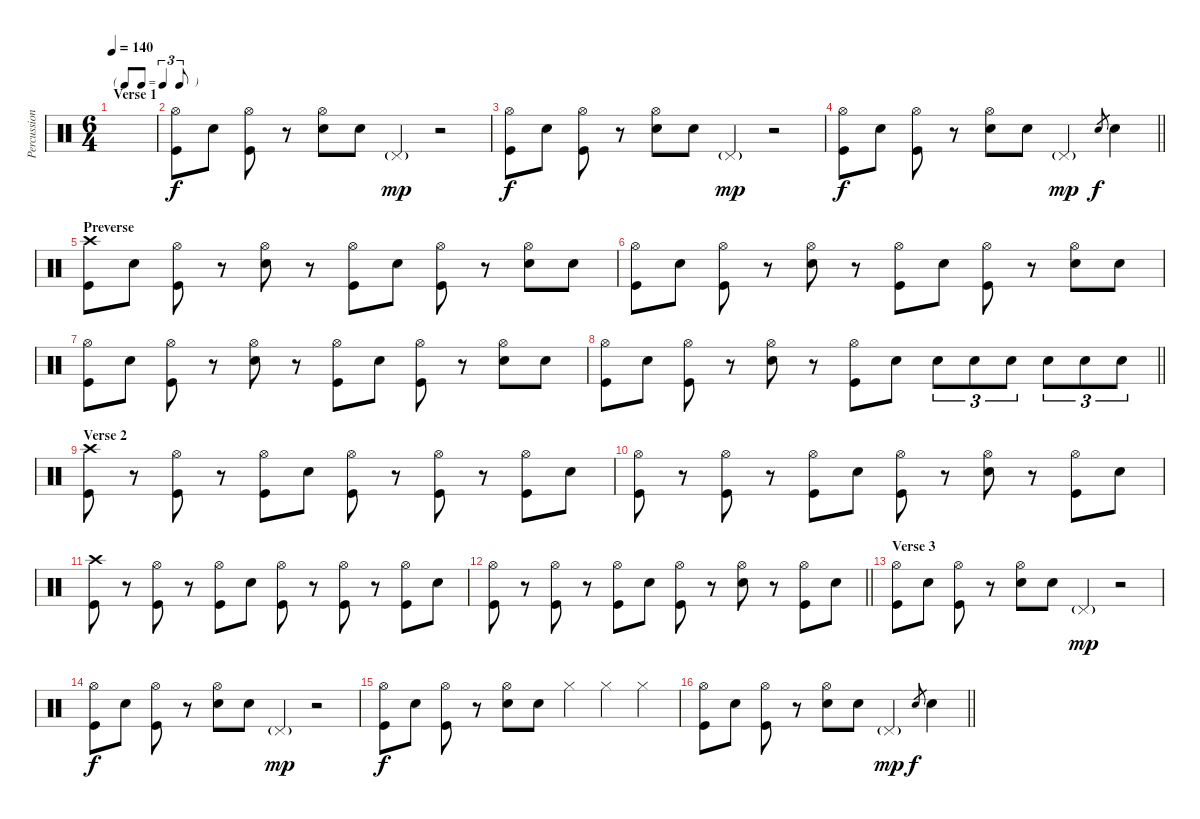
\track ("Percussion" "Percussion") {instrument percussion}
\staff {score}
\articulation defaults
\ts (6 4)
\tf triplet8th
\section ("" "Verse 1")
\tempo 140
\clef neutral
\ks c
|
("Hi-Hat (open)" "Kick (hit)").8 "Electric Snare (hit)".8 ("Hi-Hat (open)" "Kick (hit)").8 r.8 ("Hi-Hat (open)" "Electric Snare (hit)").8 "Electric Snare (hit)".8 "Pedal Hi-Hat (hit)"{g}.4{dy mp} r.2 |
("Hi-Hat (open)" "Kick (hit)").8{dy f} "Electric Snare (hit)".8 ("Hi-Hat (open)" "Kick (hit)").8 r.8 ("Hi-Hat (open)" "Electric Snare (hit)").8 "Electric Snare (hit)".8 "Pedal Hi-Hat (hit)"{g}.4{dy mp} r.2 |
\barLineRight lightlight
("Hi-Hat (open)" "Kick (hit)").8{dy f} "Electric Snare (hit)".8 ("Hi-Hat (open)" "Kick (hit)").8 r.8 ("Hi-Hat (open)" "Electric Snare (hit)").8 "Electric Snare (hit)".8 "Pedal Hi-Hat (hit)"{g}.2{dy mp} "Electric Snare (hit)".8{gr dy f} "Electric Snare (hit)".4 |
\section ("" "Preverse")
("Crash high (hit)" "Kick (hit)").8 "Electric Snare (hit)".8 ("Hi-Hat (open)" "Kick (hit)").8 r.8 ("Hi-Hat (open)" "Electric Snare (hit)").8 r.8 ("Hi-Hat (open)" "Kick (hit)").8 "Electric Snare (hit)".8 ("Hi-Hat (open)" "Kick (hit)").8 r.8 ("Hi-Hat (open)" "Electric Snare (hit)").8 "Electric Snare (hit)".8 |
("Hi-Hat (open)" "Kick (hit)").8 "Electric Snare (hit)".8 ("Hi-Hat (open)" "Kick (hit)").8 r.8 ("Hi-Hat (open)" "Electric Snare (hit)").8 r.8 ("Hi-Hat (open)" "Kick (hit)").8 "Electric Snare (hit)".8 ("Hi-Hat (open)" "Kick (hit)").8 r.8 ("Hi-Hat (open)" "Electric Snare (hit)").8 "Electric Snare (hit)".8 |
("Hi-Hat (open)" "Kick (hit)").8 "Electric Snare (hit)".8 ("Hi-Hat (open)" "Kick (hit)").8 r.8 ("Hi-Hat (open)" "Electric Snare (hit)").8 r.8 ("Hi-Hat (open)" "Kick (hit)").8 "Electric Snare (hit)".8 ("Hi-Hat (open)" "Kick (hit)").8 r.8 ("Hi-Hat (open)" "Electric Snare (hit)").8 "Electric Snare (hit)".8 |
\barLineRight lightlight
("Hi-Hat (open)" "Kick (hit)").8 "Electric Snare (hit)".8 ("Hi-Hat (open)" "Kick (hit)").8 r.8 ("Hi-Hat (open)" "Electric Snare (hit)").8 r.8 ("Hi-Hat (open)" "Kick (hit)").8 "Electric Snare (hit)".8 "Electric Snare (hit)".8{tu (3 2)} "Electric Snare (hit)".8{tu (3 2)} "Electric Snare (hit)".8{tu (3 2)} "Electric Snare (hit)".8{tu (3 2)} "Electric Snare (hit)".8{tu (3 2)} "Electric Snare (hit)".8{tu (3 2)} |
\section ("" "Verse 2")
("Crash high (hit)" "Kick (hit)").8 r.8 ("Hi-Hat (open)" "Kick (hit)").8 r.8 ("Hi-Hat (open)" "Kick (hit)").8 "Electric Snare (hit)".8 ("Hi-Hat (open)" "Kick (hit)").8 r.8 ("Hi-Hat (open)" "Kick (hit)").8 r.8 ("Hi-Hat (open)" "Kick (hit)").8 "Electric Snare (hit)".8 |
("Hi-Hat (open)" "Kick (hit)").8 r.8 ("Hi-Hat (open)" "Kick (hit)").8 r.8 ("Hi-Hat (open)" "Kick (hit)").8 "Electric Snare (hit)".8 ("Hi-Hat (open)" "Kick (hit)").8 r.8 ("Hi-Hat (open)" "Electric Snare (hit)").8 r.8 ("Hi-Hat (open)" "Kick (hit)").8 "Electric Snare (hit)".8 |
("Crash high (hit)" "Kick (hit)").8 r.8 ("Hi-Hat (open)" "Kick (hit)").8 r.8 ("Hi-Hat (open)" "Kick (hit)").8 "Electric Snare (hit)".8 ("Hi-Hat (open)" "Kick (hit)").8 r.8 ("Hi-Hat (open)" "Kick (hit)").8 r.8 ("Hi-Hat (open)" "Kick (hit)").8 "Electric Snare (hit)".8 |
\barLineRight lightlight
("Hi-Hat (open)" "Kick (hit)").8 r.8 ("Hi-Hat (open)" "Kick (hit)").8 r.8 ("Hi-Hat (open)" "Kick (hit)").8 "Electric Snare (hit)".8 ("Hi-Hat (open)" "Kick (hit)").8 r.8 ("Hi-Hat (open)" "Electric Snare (hit)").8 r.8 ("Hi-Hat (open)" "Kick (hit)").8 "Electric Snare (hit)".8 |
\section ("" "Verse 3")
("Hi-Hat (open)" "Kick (hit)").8 "Electric Snare (hit)".8 ("Hi-Hat (open)" "Kick (hit)").8 r.8 ("Hi-Hat (open)" "Electric Snare (hit)").8 "Electric Snare (hit)".8 "Pedal Hi-Hat (hit)"{g}.4{dy mp} r.2 |
("Hi-Hat (open)" "Kick (hit)").8{dy f} "Electric Snare (hit)".8 ("Hi-Hat (open)" "Kick (hit)").8 r.8 ("Hi-Hat (open)" "Electric Snare (hit)").8 "Electric Snare (hit)".8 "Pedal Hi-Hat (hit)"{g}.4{dy mp} r.2 |
("Hi-Hat (open)" "Kick (hit)").8{dy f} "Electric Snare (hit)".8 ("Hi-Hat (open)" "Kick (hit)").8 r.8 ("Hi-Hat (open)" "Electric Snare (hit)").8 "Electric Snare (hit)".8 "Hi-Hat (closed)".4 "Hi-Hat (closed)".4 "Hi-Hat (closed)".4 |
\barLineRight lightlight
("Hi-Hat (open)" "Kick (hit)").8 "Electric Snare (hit)".8 ("Hi-Hat (open)" "Kick (hit)").8 r.8 ("Hi-Hat (open)" "Electric Snare (hit)").8 "Electric Snare (hit)".8 "Pedal Hi-Hat (hit)"{g}.2{dy mp} "Electric Snare (hit)".8{gr dy f} "Electric Snare (hit)".4
